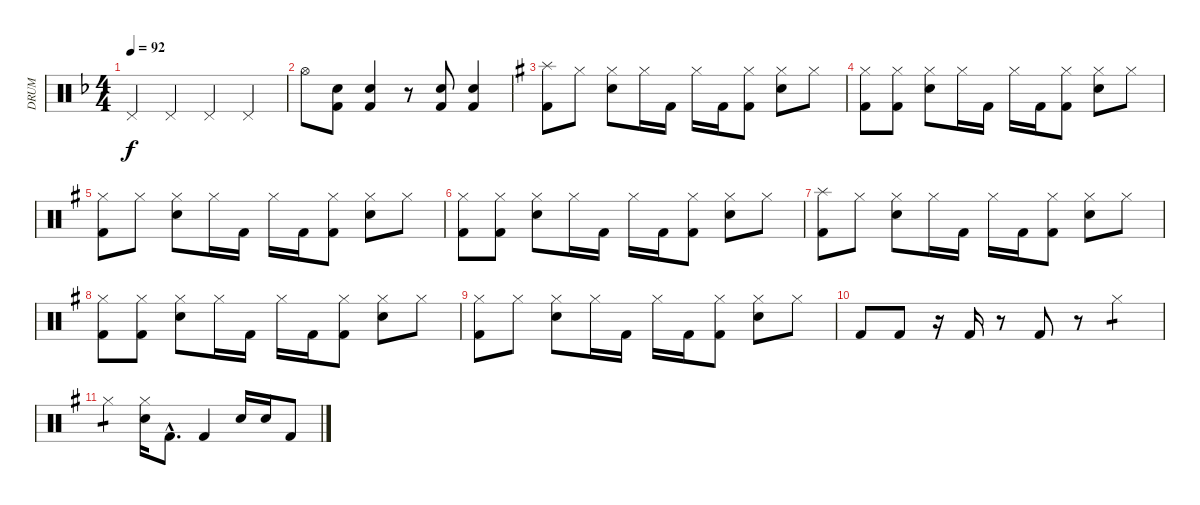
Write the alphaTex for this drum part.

\track ("DRUM" "DRUM") {instrument percussion}
\staff {score}
\articulation defaults
\ts (4 4)
\tempo 92
\clef neutral
\ks f "Pedal Hi-Hat (hit)".4{dy f} "Pedal Hi-Hat (hit)".4 "Pedal Hi-Hat (hit)".4 "Pedal Hi-Hat (hit)".4
|
"Hi-Hat (open)".8 ("Electric Snare (hit)" "Kick (hit) 2").8 ("Electric Snare (hit)" "Kick (hit) 2").4 r.8 ("Electric Snare (hit)" "Kick (hit) 2").8 ("Electric Snare (hit)" "Kick (hit) 2").4 |
\ks g
("Splash (hit)" "Kick (hit) 2").8 "Hi-Hat (closed)".8 ("Hi-Hat (closed)" "Electric Snare (hit)").8 "Hi-Hat (closed)".16 "Kick (hit) 2".16 "Hi-Hat (closed)".16 "Kick (hit) 2".16 ("Hi-Hat (closed)" "Kick (hit) 2").8 ("Hi-Hat (closed)" "Electric Snare (hit)").8 "Hi-Hat (closed)".8 |
("Hi-Hat (closed)" "Kick (hit) 2").8 ("Hi-Hat (closed)" "Kick (hit) 2").8 ("Hi-Hat (closed)" "Electric Snare (hit)").8 "Hi-Hat (closed)".16 "Kick (hit) 2".16 "Hi-Hat (closed)".16 "Kick (hit) 2".16 ("Hi-Hat (closed)" "Kick (hit) 2").8 ("Hi-Hat (closed)" "Electric Snare (hit)").8 "Hi-Hat (closed)".8 |
("Hi-Hat (closed)" "Kick (hit) 2").8 "Hi-Hat (closed)".8 ("Hi-Hat (closed)" "Electric Snare (hit)").8 "Hi-Hat (closed)".16 "Kick (hit) 2".16 "Hi-Hat (closed)".16 "Kick (hit) 2".16 ("Hi-Hat (closed)" "Kick (hit) 2").8 ("Hi-Hat (closed)" "Electric Snare (hit)").8 "Hi-Hat (closed)".8 |
("Hi-Hat (closed)" "Kick (hit) 2").8 ("Hi-Hat (closed)" "Kick (hit) 2").8 ("Hi-Hat (closed)" "Electric Snare (hit)").8 "Hi-Hat (closed)".16 "Kick (hit) 2".16 "Hi-Hat (closed)".16 "Kick (hit) 2".16 ("Hi-Hat (closed)" "Kick (hit) 2").8 ("Hi-Hat (closed)" "Electric Snare (hit)").8 "Hi-Hat (closed)".8 |
("Splash (hit)" "Kick (hit) 2").8 "Hi-Hat (closed)".8 ("Hi-Hat (closed)" "Electric Snare (hit)").8 "Hi-Hat (closed)".16 "Kick (hit) 2".16 "Hi-Hat (closed)".16 "Kick (hit) 2".16 ("Hi-Hat (closed)" "Kick (hit) 2").8 ("Hi-Hat (closed)" "Electric Snare (hit)").8 "Hi-Hat (closed)".8 |
("Hi-Hat (closed)" "Kick (hit) 2").8 ("Hi-Hat (closed)" "Kick (hit) 2").8 ("Hi-Hat (closed)" "Electric Snare (hit)").8 "Hi-Hat (closed)".16 "Kick (hit) 2".16 "Hi-Hat (closed)".16 "Kick (hit) 2".16 ("Hi-Hat (closed)" "Kick (hit) 2").8 ("Hi-Hat (closed)" "Electric Snare (hit)").8 "Hi-Hat (closed)".8 |
("Hi-Hat (closed)" "Kick (hit) 2").8 "Hi-Hat (closed)".8 ("Hi-Hat (closed)" "Electric Snare (hit)").8 "Hi-Hat (closed)".16 "Kick (hit) 2".16 "Hi-Hat (closed)".16 "Kick (hit) 2".16 ("Hi-Hat (closed)" "Kick (hit) 2").8 ("Hi-Hat (closed)" "Electric Snare (hit)").8 "Hi-Hat (closed)".8 |
"Kick (hit) 2".8 "Kick (hit) 2".8 r.16 "Kick (hit) 2".16 r.8 "Kick (hit) 2".8 r.8 "Hi-Hat (closed)".4{tp 1} |
"Hi-Hat (closed)".4{tp 1} ("Hi-Hat (closed)" "Electric Snare (hit)").16 "Kick (hit) 2"{hac}.8{d} "Kick (hit) 2".4 "Electric Snare (hit)".16 "Electric Snare (hit)".16 "Kick (hit) 2".8
